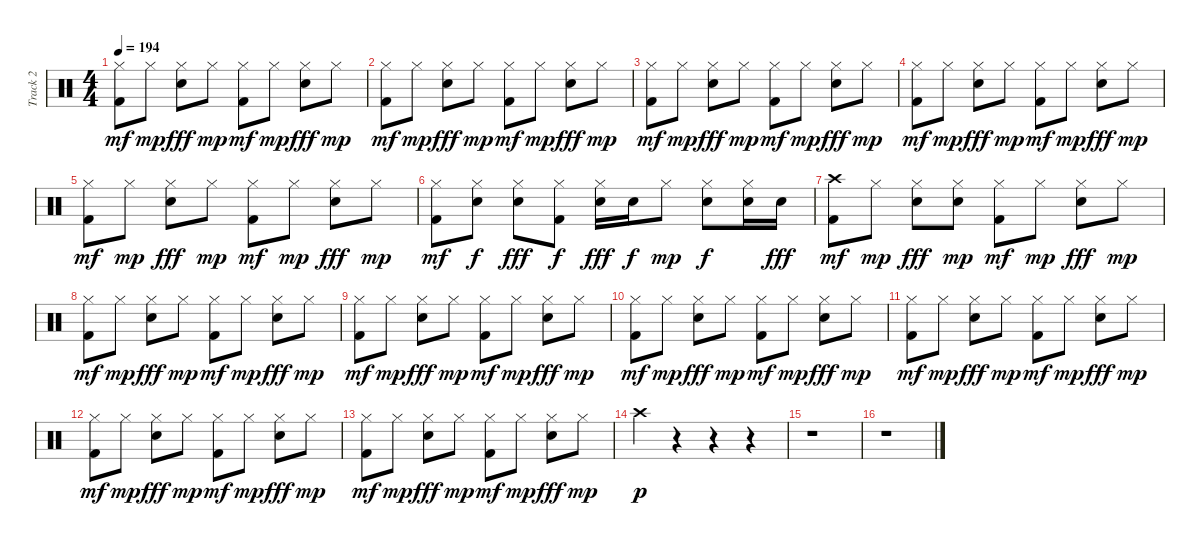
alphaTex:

\track ("Track 2" "Track 2") {instrument percussion}
\staff {score}
\articulation defaults
\ts (4 4)
\tempo 194
\clef neutral
\ks c
("Hi-Hat (closed)" "Kick (hit) 2").8{dy mf} "Hi-Hat (closed)".8{dy mp} ("Hi-Hat (closed)" "Snare (hit)").8{dy fff} "Hi-Hat (closed)".8{dy mp} ("Hi-Hat (closed)" "Kick (hit) 2").8{dy mf} "Hi-Hat (closed)".8{dy mp} ("Hi-Hat (closed)" "Snare (hit)").8{dy fff} "Hi-Hat (closed)".8{dy mp} |
("Hi-Hat (closed)" "Kick (hit) 2").8{dy mf} "Hi-Hat (closed)".8{dy mp} ("Hi-Hat (closed)" "Snare (hit)").8{dy fff} "Hi-Hat (closed)".8{dy mp} ("Hi-Hat (closed)" "Kick (hit) 2").8{dy mf} "Hi-Hat (closed)".8{dy mp} ("Hi-Hat (closed)" "Snare (hit)").8{dy fff} "Hi-Hat (closed)".8{dy mp} |
("Hi-Hat (closed)" "Kick (hit) 2").8{dy mf} "Hi-Hat (closed)".8{dy mp} ("Hi-Hat (closed)" "Snare (hit)").8{dy fff} "Hi-Hat (closed)".8{dy mp} ("Hi-Hat (closed)" "Kick (hit) 2").8{dy mf} "Hi-Hat (closed)".8{dy mp} ("Hi-Hat (closed)" "Snare (hit)").8{dy fff} "Hi-Hat (closed)".8{dy mp} |
("Hi-Hat (closed)" "Kick (hit) 2").8{dy mf} "Hi-Hat (closed)".8{dy mp} ("Hi-Hat (closed)" "Snare (hit)").8{dy fff} "Hi-Hat (closed)".8{dy mp} ("Hi-Hat (closed)" "Kick (hit) 2").8{dy mf} "Hi-Hat (closed)".8{dy mp} ("Hi-Hat (closed)" "Snare (hit)").8{dy fff} "Hi-Hat (closed)".8{dy mp} |
("Hi-Hat (closed)" "Kick (hit) 2").8{dy mf} "Hi-Hat (closed)".8{dy mp} ("Hi-Hat (closed)" "Snare (hit)").8{dy fff} "Hi-Hat (closed)".8{dy mp} ("Hi-Hat (closed)" "Kick (hit) 2").8{dy mf} "Hi-Hat (closed)".8{dy mp} ("Hi-Hat (closed)" "Snare (hit)").8{dy fff} "Hi-Hat (closed)".8{dy mp} |
("Hi-Hat (closed)" "Kick (hit) 2").8{dy mf} ("Hi-Hat (closed)" "Snare (hit)").8{dy f} ("Hi-Hat (closed)" "Snare (hit)").8{dy fff} ("Hi-Hat (closed)" "Kick (hit) 2").8{dy f} ("Hi-Hat (closed)" "Snare (hit)").16{dy fff} "Snare (hit)".16{dy f} "Hi-Hat (closed)".8{dy mp} ("Hi-Hat (closed)" "Snare (hit)").8{dy f} ("Hi-Hat (closed)" "Snare (hit)").16 "Snare (hit)".16{dy fff} |
("Crash high (hit)" "Kick (hit) 2").8{dy mf} "Hi-Hat (closed)".8{dy mp} ("Hi-Hat (closed)" "Snare (hit)").8{dy fff} ("Hi-Hat (closed)" "Snare (hit)").8{dy mp} ("Hi-Hat (closed)" "Kick (hit) 2").8{dy mf} "Hi-Hat (closed)".8{dy mp} ("Hi-Hat (closed)" "Snare (hit)").8{dy fff} "Hi-Hat (closed)".8{dy mp} |
("Hi-Hat (closed)" "Kick (hit) 2").8{dy mf} "Hi-Hat (closed)".8{dy mp} ("Hi-Hat (closed)" "Snare (hit)").8{dy fff} "Hi-Hat (closed)".8{dy mp} ("Hi-Hat (closed)" "Kick (hit) 2").8{dy mf} "Hi-Hat (closed)".8{dy mp} ("Hi-Hat (closed)" "Snare (hit)").8{dy fff} "Hi-Hat (closed)".8{dy mp} |
("Hi-Hat (closed)" "Kick (hit) 2").8{dy mf} "Hi-Hat (closed)".8{dy mp} ("Hi-Hat (closed)" "Snare (hit)").8{dy fff} "Hi-Hat (closed)".8{dy mp} ("Hi-Hat (closed)" "Kick (hit) 2").8{dy mf} "Hi-Hat (closed)".8{dy mp} ("Hi-Hat (closed)" "Snare (hit)").8{dy fff} "Hi-Hat (closed)".8{dy mp} |
("Hi-Hat (closed)" "Kick (hit) 2").8{dy mf} "Hi-Hat (closed)".8{dy mp} ("Hi-Hat (closed)" "Snare (hit)").8{dy fff} "Hi-Hat (closed)".8{dy mp} ("Hi-Hat (closed)" "Kick (hit) 2").8{dy mf} "Hi-Hat (closed)".8{dy mp} ("Hi-Hat (closed)" "Snare (hit)").8{dy fff} "Hi-Hat (closed)".8{dy mp} |
("Hi-Hat (closed)" "Kick (hit) 2").8{dy mf} "Hi-Hat (closed)".8{dy mp} ("Hi-Hat (closed)" "Snare (hit)").8{dy fff} "Hi-Hat (closed)".8{dy mp} ("Hi-Hat (closed)" "Kick (hit) 2").8{dy mf} "Hi-Hat (closed)".8{dy mp} ("Hi-Hat (closed)" "Snare (hit)").8{dy fff} "Hi-Hat (closed)".8{dy mp} |
("Hi-Hat (closed)" "Kick (hit) 2").8{dy mf} "Hi-Hat (closed)".8{dy mp} ("Hi-Hat (closed)" "Snare (hit)").8{dy fff} "Hi-Hat (closed)".8{dy mp} ("Hi-Hat (closed)" "Kick (hit) 2").8{dy mf} "Hi-Hat (closed)".8{dy mp} ("Hi-Hat (closed)" "Snare (hit)").8{dy fff} "Hi-Hat (closed)".8{dy mp} |
("Hi-Hat (closed)" "Kick (hit) 2").8{dy mf} "Hi-Hat (closed)".8{dy mp} ("Hi-Hat (closed)" "Snare (hit)").8{dy fff} "Hi-Hat (closed)".8{dy mp} ("Hi-Hat (closed)" "Kick (hit) 2").8{dy mf} "Hi-Hat (closed)".8{dy mp} ("Hi-Hat (closed)" "Snare (hit)").8{dy fff} "Hi-Hat (closed)".8{dy mp} |
"Crash high (hit)".4{dy p} r.4 r.4 r.4 |
r.1 |
r.1
